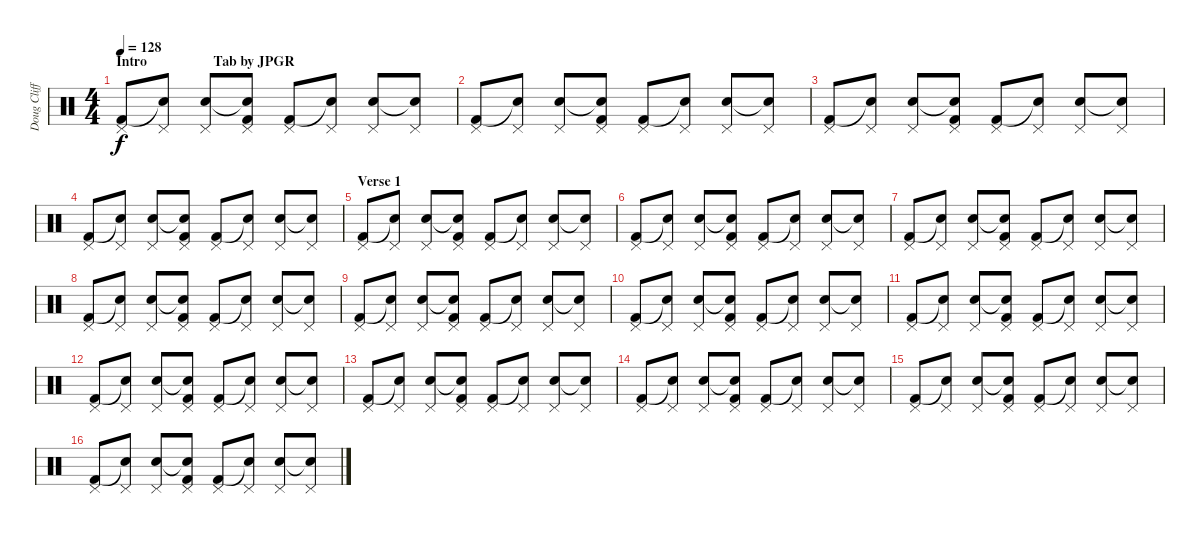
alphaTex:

\track ("Doug Clifford" "Doug Cliff") {instrument percussion}
\staff {score}
\articulation defaults
\ts (4 4)
\section ("" "Intro                   Tab by JPGR")
\tempo 128
\clef neutral
\ks c
("Pedal Hi-Hat (hit)" "Kick (hit) 2").8{dy f} ("Pedal Hi-Hat (hit)" "Snare (hit)"{t}).8 ("Pedal Hi-Hat (hit)" "Snare (hit) 2").8 ("Pedal Hi-Hat (hit)" "Snare (hit)"{t} "Kick (hit) 2").8 ("Pedal Hi-Hat (hit)" "Kick (hit) 2").8 ("Pedal Hi-Hat (hit)" "Snare (hit)"{t}).8 ("Pedal Hi-Hat (hit)" "Snare (hit) 2").8 ("Pedal Hi-Hat (hit)" "Snare (hit)"{t}).8 |
("Pedal Hi-Hat (hit)" "Kick (hit) 2").8 ("Pedal Hi-Hat (hit)" "Snare (hit)"{t}).8 ("Pedal Hi-Hat (hit)" "Snare (hit) 2").8 ("Pedal Hi-Hat (hit)" "Snare (hit)"{t} "Kick (hit) 2").8 ("Pedal Hi-Hat (hit)" "Kick (hit) 2").8 ("Pedal Hi-Hat (hit)" "Snare (hit)"{t}).8 ("Pedal Hi-Hat (hit)" "Snare (hit) 2").8 ("Pedal Hi-Hat (hit)" "Snare (hit)"{t}).8 |
("Pedal Hi-Hat (hit)" "Kick (hit) 2").8 ("Pedal Hi-Hat (hit)" "Snare (hit)"{t}).8 ("Pedal Hi-Hat (hit)" "Snare (hit) 2").8 ("Pedal Hi-Hat (hit)" "Snare (hit)"{t} "Kick (hit) 2").8 ("Pedal Hi-Hat (hit)" "Kick (hit) 2").8 ("Pedal Hi-Hat (hit)" "Snare (hit)"{t}).8 ("Pedal Hi-Hat (hit)" "Snare (hit) 2").8 ("Pedal Hi-Hat (hit)" "Snare (hit)"{t}).8 |
("Pedal Hi-Hat (hit)" "Kick (hit) 2").8 ("Pedal Hi-Hat (hit)" "Snare (hit)"{t}).8 ("Pedal Hi-Hat (hit)" "Snare (hit) 2").8 ("Pedal Hi-Hat (hit)" "Snare (hit)"{t} "Kick (hit) 2").8 ("Pedal Hi-Hat (hit)" "Kick (hit) 2").8 ("Pedal Hi-Hat (hit)" "Snare (hit)"{t}).8 ("Pedal Hi-Hat (hit)" "Snare (hit) 2").8 ("Pedal Hi-Hat (hit)" "Snare (hit)"{t}).8 |
\section ("" "Verse 1")
("Pedal Hi-Hat (hit)" "Kick (hit) 2").8 ("Pedal Hi-Hat (hit)" "Snare (hit)"{t}).8 ("Pedal Hi-Hat (hit)" "Snare (hit) 2").8 ("Pedal Hi-Hat (hit)" "Snare (hit)"{t} "Kick (hit) 2").8 ("Pedal Hi-Hat (hit)" "Kick (hit) 2").8 ("Pedal Hi-Hat (hit)" "Snare (hit)"{t}).8 ("Pedal Hi-Hat (hit)" "Snare (hit) 2").8 ("Pedal Hi-Hat (hit)" "Snare (hit)"{t}).8 |
("Pedal Hi-Hat (hit)" "Kick (hit) 2").8 ("Pedal Hi-Hat (hit)" "Snare (hit)"{t}).8 ("Pedal Hi-Hat (hit)" "Snare (hit) 2").8 ("Pedal Hi-Hat (hit)" "Snare (hit)"{t} "Kick (hit) 2").8 ("Pedal Hi-Hat (hit)" "Kick (hit) 2").8 ("Pedal Hi-Hat (hit)" "Snare (hit)"{t}).8 ("Pedal Hi-Hat (hit)" "Snare (hit) 2").8 ("Pedal Hi-Hat (hit)" "Snare (hit)"{t}).8 |
("Pedal Hi-Hat (hit)" "Kick (hit) 2").8 ("Pedal Hi-Hat (hit)" "Snare (hit)"{t}).8 ("Pedal Hi-Hat (hit)" "Snare (hit) 2").8 ("Pedal Hi-Hat (hit)" "Snare (hit)"{t} "Kick (hit) 2").8 ("Pedal Hi-Hat (hit)" "Kick (hit) 2").8 ("Pedal Hi-Hat (hit)" "Snare (hit)"{t}).8 ("Pedal Hi-Hat (hit)" "Snare (hit) 2").8 ("Pedal Hi-Hat (hit)" "Snare (hit)"{t}).8 |
("Pedal Hi-Hat (hit)" "Kick (hit) 2").8 ("Pedal Hi-Hat (hit)" "Snare (hit)"{t}).8 ("Pedal Hi-Hat (hit)" "Snare (hit) 2").8 ("Pedal Hi-Hat (hit)" "Snare (hit)"{t} "Kick (hit) 2").8 ("Pedal Hi-Hat (hit)" "Kick (hit) 2").8 ("Pedal Hi-Hat (hit)" "Snare (hit)"{t}).8 ("Pedal Hi-Hat (hit)" "Snare (hit) 2").8 ("Pedal Hi-Hat (hit)" "Snare (hit)"{t}).8 |
("Pedal Hi-Hat (hit)" "Kick (hit) 2").8 ("Pedal Hi-Hat (hit)" "Snare (hit)"{t}).8 ("Pedal Hi-Hat (hit)" "Snare (hit) 2").8 ("Pedal Hi-Hat (hit)" "Snare (hit)"{t} "Kick (hit) 2").8 ("Pedal Hi-Hat (hit)" "Kick (hit) 2").8 ("Pedal Hi-Hat (hit)" "Snare (hit)"{t}).8 ("Pedal Hi-Hat (hit)" "Snare (hit) 2").8 ("Pedal Hi-Hat (hit)" "Snare (hit)"{t}).8 |
("Pedal Hi-Hat (hit)" "Kick (hit) 2").8 ("Pedal Hi-Hat (hit)" "Snare (hit)"{t}).8 ("Pedal Hi-Hat (hit)" "Snare (hit) 2").8 ("Pedal Hi-Hat (hit)" "Snare (hit)"{t} "Kick (hit) 2").8 ("Pedal Hi-Hat (hit)" "Kick (hit) 2").8 ("Pedal Hi-Hat (hit)" "Snare (hit)"{t}).8 ("Pedal Hi-Hat (hit)" "Snare (hit) 2").8 ("Pedal Hi-Hat (hit)" "Snare (hit)"{t}).8 |
("Pedal Hi-Hat (hit)" "Kick (hit) 2").8 ("Pedal Hi-Hat (hit)" "Snare (hit)"{t}).8 ("Pedal Hi-Hat (hit)" "Snare (hit) 2").8 ("Pedal Hi-Hat (hit)" "Snare (hit)"{t} "Kick (hit) 2").8 ("Pedal Hi-Hat (hit)" "Kick (hit) 2").8 ("Pedal Hi-Hat (hit)" "Snare (hit)"{t}).8 ("Pedal Hi-Hat (hit)" "Snare (hit) 2").8 ("Pedal Hi-Hat (hit)" "Snare (hit)"{t}).8 |
("Pedal Hi-Hat (hit)" "Kick (hit) 2").8 ("Pedal Hi-Hat (hit)" "Snare (hit)"{t}).8 ("Pedal Hi-Hat (hit)" "Snare (hit) 2").8 ("Pedal Hi-Hat (hit)" "Snare (hit)"{t} "Kick (hit) 2").8 ("Pedal Hi-Hat (hit)" "Kick (hit) 2").8 ("Pedal Hi-Hat (hit)" "Snare (hit)"{t}).8 ("Pedal Hi-Hat (hit)" "Snare (hit) 2").8 ("Pedal Hi-Hat (hit)" "Snare (hit)"{t}).8 |
("Pedal Hi-Hat (hit)" "Kick (hit) 2").8 ("Pedal Hi-Hat (hit)" "Snare (hit)"{t}).8 ("Pedal Hi-Hat (hit)" "Snare (hit) 2").8 ("Pedal Hi-Hat (hit)" "Snare (hit)"{t} "Kick (hit) 2").8 ("Pedal Hi-Hat (hit)" "Kick (hit) 2").8 ("Pedal Hi-Hat (hit)" "Snare (hit)"{t}).8 ("Pedal Hi-Hat (hit)" "Snare (hit) 2").8 ("Pedal Hi-Hat (hit)" "Snare (hit)"{t}).8 |
("Pedal Hi-Hat (hit)" "Kick (hit) 2").8 ("Pedal Hi-Hat (hit)" "Snare (hit)"{t}).8 ("Pedal Hi-Hat (hit)" "Snare (hit) 2").8 ("Pedal Hi-Hat (hit)" "Snare (hit)"{t} "Kick (hit) 2").8 ("Pedal Hi-Hat (hit)" "Kick (hit) 2").8 ("Pedal Hi-Hat (hit)" "Snare (hit)"{t}).8 ("Pedal Hi-Hat (hit)" "Snare (hit) 2").8 ("Pedal Hi-Hat (hit)" "Snare (hit)"{t}).8 |
("Pedal Hi-Hat (hit)" "Kick (hit) 2").8 ("Pedal Hi-Hat (hit)" "Snare (hit)"{t}).8 ("Pedal Hi-Hat (hit)" "Snare (hit) 2").8 ("Pedal Hi-Hat (hit)" "Snare (hit)"{t} "Kick (hit) 2").8 ("Pedal Hi-Hat (hit)" "Kick (hit) 2").8 ("Pedal Hi-Hat (hit)" "Snare (hit)"{t}).8 ("Pedal Hi-Hat (hit)" "Snare (hit) 2").8 ("Pedal Hi-Hat (hit)" "Snare (hit)"{t}).8 |
("Pedal Hi-Hat (hit)" "Kick (hit) 2").8 ("Pedal Hi-Hat (hit)" "Snare (hit)"{t}).8 ("Pedal Hi-Hat (hit)" "Snare (hit) 2").8 ("Pedal Hi-Hat (hit)" "Snare (hit)"{t} "Kick (hit) 2").8 ("Pedal Hi-Hat (hit)" "Kick (hit) 2").8 ("Pedal Hi-Hat (hit)" "Snare (hit)"{t}).8 ("Pedal Hi-Hat (hit)" "Snare (hit) 2").8 ("Pedal Hi-Hat (hit)" "Snare (hit)"{t}).8
